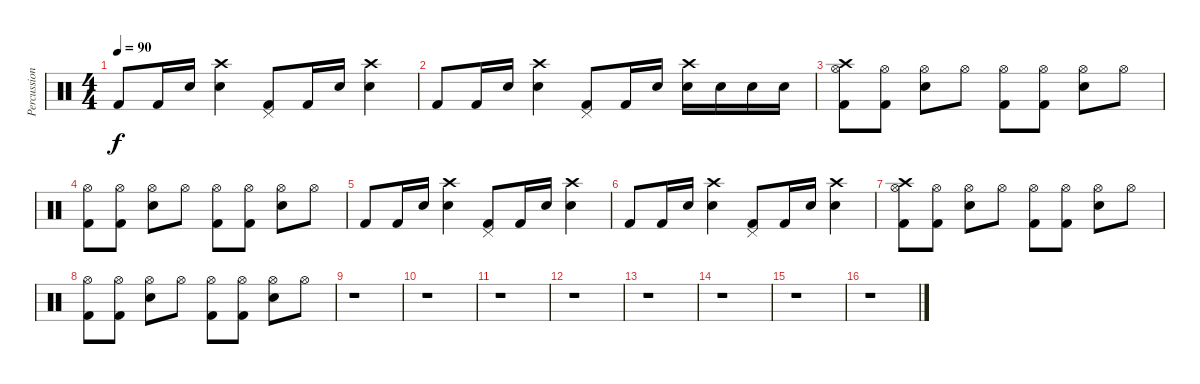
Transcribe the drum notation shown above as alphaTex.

\track ("Percussion" "Percussion") {instrument percussion}
\staff {score}
\articulation defaults
\ts (4 4)
\tempo 90
\clef neutral
\ks c "Kick (hit) 2".8{dy f} "Kick (hit) 2".16 "Electric Snare (hit)".16
("Crash high (hit)" "Electric Snare (hit)").4 ("Pedal Hi-Hat (hit)" "Kick (hit) 2").8 "Kick (hit) 2".16 "Electric Snare (hit)".16 ("Crash high (hit)" "Electric Snare (hit)").4 |
"Kick (hit) 2".8 "Kick (hit) 2".16 "Electric Snare (hit)".16 ("Crash high (hit)" "Electric Snare (hit)").4 ("Pedal Hi-Hat (hit)" "Kick (hit) 2").8 "Kick (hit) 2".16 "Electric Snare (hit)".16 ("Crash high (hit)" "Electric Snare (hit)").16 "Electric Snare (hit)".16 "Electric Snare (hit)".16 "Electric Snare (hit)".16 |
("Hi-Hat (open)" "Kick (hit) 2" "Crash high (hit)").8 ("Hi-Hat (open)" "Kick (hit) 2").8 ("Hi-Hat (open)" "Electric Snare (hit)").8 "Hi-Hat (open)".8 ("Hi-Hat (open)" "Kick (hit) 2").8 ("Hi-Hat (open)" "Kick (hit) 2").8 ("Hi-Hat (open)" "Electric Snare (hit)").8 "Hi-Hat (open)".8 |
("Hi-Hat (open)" "Kick (hit) 2").8 ("Hi-Hat (open)" "Kick (hit) 2").8 ("Hi-Hat (open)" "Electric Snare (hit)").8 "Hi-Hat (open)".8 ("Hi-Hat (open)" "Kick (hit) 2").8 ("Hi-Hat (open)" "Kick (hit) 2").8 ("Hi-Hat (open)" "Electric Snare (hit)").8 "Hi-Hat (open)".8 |
"Kick (hit) 2".8 "Kick (hit) 2".16 "Electric Snare (hit)".16 ("Crash high (hit)" "Electric Snare (hit)").4 ("Pedal Hi-Hat (hit)" "Kick (hit) 2").8 "Kick (hit) 2".16 "Electric Snare (hit)".16 ("Crash high (hit)" "Electric Snare (hit)").4 |
"Kick (hit) 2".8 "Kick (hit) 2".16 "Electric Snare (hit)".16 ("Crash high (hit)" "Electric Snare (hit)").4 ("Pedal Hi-Hat (hit)" "Kick (hit) 2").8 "Kick (hit) 2".16 "Electric Snare (hit)".16 ("Crash high (hit)" "Electric Snare (hit)").4 |
("Hi-Hat (open)" "Kick (hit) 2" "Crash high (hit)").8 ("Hi-Hat (open)" "Kick (hit) 2").8 ("Hi-Hat (open)" "Electric Snare (hit)").8 "Hi-Hat (open)".8 ("Hi-Hat (open)" "Kick (hit) 2").8 ("Hi-Hat (open)" "Kick (hit) 2").8 ("Hi-Hat (open)" "Electric Snare (hit)").8 "Hi-Hat (open)".8 |
("Hi-Hat (open)" "Kick (hit) 2").8 ("Hi-Hat (open)" "Kick (hit) 2").8 ("Hi-Hat (open)" "Electric Snare (hit)").8 "Hi-Hat (open)".8 ("Hi-Hat (open)" "Kick (hit) 2").8 ("Hi-Hat (open)" "Kick (hit) 2").8 ("Hi-Hat (open)" "Electric Snare (hit)").8 "Hi-Hat (open)".8 |
r.1 |
r.1 |
r.1 |
r.1 |
r.1 |
r.1 |
r.1 |
r.1
